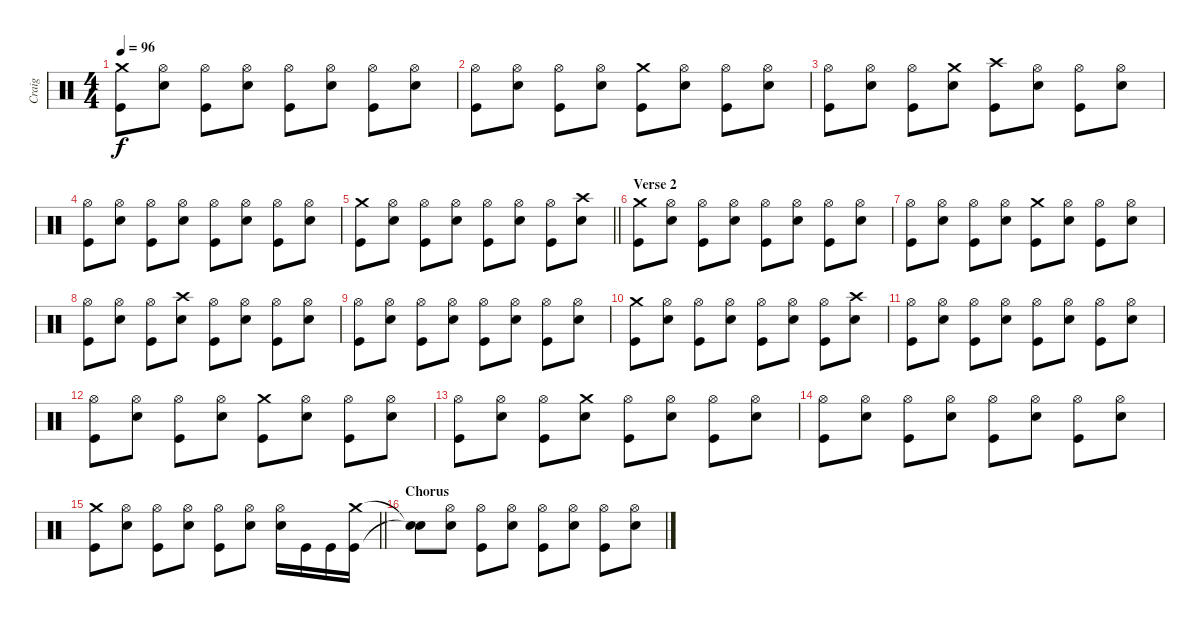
\track ("Craig" "Craig") {instrument percussion}
\staff {score}
\articulation defaults
\ts (4 4)
\tempo 96
\clef neutral
\ks c
("Crash medium (hit)" "Kick (hit)").8{dy f} ("Hi-Hat (open)" "Snare (hit) 2").8 ("Hi-Hat (open)" "Kick (hit)").8 ("Hi-Hat (open)" "Snare (hit) 2").8 ("Hi-Hat (open)" "Kick (hit)").8 ("Hi-Hat (open)" "Snare (hit) 2").8 ("Hi-Hat (open)" "Kick (hit)").8 ("Hi-Hat (open)" "Snare (hit) 2").8 |
("Hi-Hat (open)" "Kick (hit)").8 ("Hi-Hat (open)" "Snare (hit) 2").8 ("Hi-Hat (open)" "Kick (hit)").8 ("Hi-Hat (open)" "Snare (hit) 2").8 ("Crash medium (hit)" "Kick (hit)").8 ("Hi-Hat (open)" "Snare (hit) 2").8 ("Hi-Hat (open)" "Kick (hit)").8 ("Hi-Hat (open)" "Snare (hit) 2").8 |
("Hi-Hat (open)" "Kick (hit)").8 ("Hi-Hat (open)" "Snare (hit) 2").8 ("Hi-Hat (open)" "Kick (hit)").8 ("Crash medium (hit)" "Snare (hit) 2").8 ("Crash high (hit)" "Kick (hit)").8 ("Hi-Hat (open)" "Snare (hit) 2").8 ("Hi-Hat (open)" "Kick (hit)").8 ("Hi-Hat (open)" "Snare (hit) 2").8 |
("Hi-Hat (open)" "Kick (hit)").8 ("Hi-Hat (open)" "Snare (hit) 2").8 ("Hi-Hat (open)" "Kick (hit)").8 ("Hi-Hat (open)" "Snare (hit) 2").8 ("Hi-Hat (open)" "Kick (hit)").8 ("Hi-Hat (open)" "Snare (hit) 2").8 ("Hi-Hat (open)" "Kick (hit)").8 ("Hi-Hat (open)" "Snare (hit) 2").8 |
\barLineRight lightlight
("Crash medium (hit)" "Kick (hit)").8 ("Hi-Hat (open)" "Snare (hit) 2").8 ("Hi-Hat (open)" "Kick (hit)").8 ("Hi-Hat (open)" "Snare (hit) 2").8 ("Hi-Hat (open)" "Kick (hit)").8 ("Hi-Hat (open)" "Snare (hit) 2").8 ("Hi-Hat (open)" "Kick (hit)").8 ("Crash high (hit)" "Snare (hit) 2").8 |
\section ("" "Verse 2")
("Crash medium (hit)" "Kick (hit)").8 ("Hi-Hat (open)" "Snare (hit) 2").8 ("Hi-Hat (open)" "Kick (hit)").8 ("Hi-Hat (open)" "Snare (hit) 2").8 ("Hi-Hat (open)" "Kick (hit)").8 ("Hi-Hat (open)" "Snare (hit) 2").8 ("Hi-Hat (open)" "Kick (hit)").8 ("Hi-Hat (open)" "Snare (hit) 2").8 |
("Hi-Hat (open)" "Kick (hit)").8 ("Hi-Hat (open)" "Snare (hit) 2").8 ("Hi-Hat (open)" "Kick (hit)").8 ("Hi-Hat (open)" "Snare (hit) 2").8 ("Crash medium (hit)" "Kick (hit)").8 ("Hi-Hat (open)" "Snare (hit) 2").8 ("Hi-Hat (open)" "Kick (hit)").8 ("Hi-Hat (open)" "Snare (hit) 2").8 |
("Hi-Hat (open)" "Kick (hit)").8 ("Hi-Hat (open)" "Snare (hit) 2").8 ("Hi-Hat (open)" "Kick (hit)").8 ("Crash high (hit)" "Snare (hit) 2").8 ("Hi-Hat (open)" "Kick (hit)").8 ("Hi-Hat (open)" "Snare (hit) 2").8 ("Hi-Hat (open)" "Kick (hit)").8 ("Hi-Hat (open)" "Snare (hit) 2").8 |
("Hi-Hat (open)" "Kick (hit)").8 ("Hi-Hat (open)" "Snare (hit) 2").8 ("Hi-Hat (open)" "Kick (hit)").8 ("Hi-Hat (open)" "Snare (hit) 2").8 ("Hi-Hat (open)" "Kick (hit)").8 ("Hi-Hat (open)" "Snare (hit) 2").8 ("Hi-Hat (open)" "Kick (hit)").8 ("Hi-Hat (open)" "Snare (hit) 2").8 |
("Crash medium (hit)" "Kick (hit)").8 ("Hi-Hat (open)" "Snare (hit) 2").8 ("Hi-Hat (open)" "Kick (hit)").8 ("Hi-Hat (open)" "Snare (hit) 2").8 ("Hi-Hat (open)" "Kick (hit)").8 ("Hi-Hat (open)" "Snare (hit) 2").8 ("Hi-Hat (open)" "Kick (hit)").8 ("Crash high (hit)" "Snare (hit) 2").8 |
("Hi-Hat (open)" "Kick (hit)").8 ("Hi-Hat (open)" "Snare (hit) 2").8 ("Hi-Hat (open)" "Kick (hit)").8 ("Hi-Hat (open)" "Snare (hit) 2").8 ("Hi-Hat (open)" "Kick (hit)").8 ("Hi-Hat (open)" "Snare (hit) 2").8 ("Hi-Hat (open)" "Kick (hit)").8 ("Hi-Hat (open)" "Snare (hit) 2").8 |
("Hi-Hat (open)" "Kick (hit)").8 ("Hi-Hat (open)" "Snare (hit) 2").8 ("Hi-Hat (open)" "Kick (hit)").8 ("Hi-Hat (open)" "Snare (hit) 2").8 ("Crash medium (hit)" "Kick (hit)").8 ("Hi-Hat (open)" "Snare (hit) 2").8 ("Hi-Hat (open)" "Kick (hit)").8 ("Hi-Hat (open)" "Snare (hit) 2").8 |
("Hi-Hat (open)" "Kick (hit)").8 ("Hi-Hat (open)" "Snare (hit) 2").8 ("Hi-Hat (open)" "Kick (hit)").8 ("Crash medium (hit)" "Snare (hit) 2").8 ("Hi-Hat (open)" "Kick (hit)").8 ("Hi-Hat (open)" "Snare (hit) 2").8 ("Hi-Hat (open)" "Kick (hit)").8 ("Hi-Hat (open)" "Snare (hit) 2").8 |
("Hi-Hat (open)" "Kick (hit)").8 ("Hi-Hat (open)" "Snare (hit) 2").8 ("Hi-Hat (open)" "Kick (hit)").8 ("Hi-Hat (open)" "Snare (hit) 2").8 ("Hi-Hat (open)" "Kick (hit)").8 ("Hi-Hat (open)" "Snare (hit) 2").8 ("Hi-Hat (open)" "Kick (hit)").8 ("Hi-Hat (open)" "Snare (hit) 2").8 |
\barLineRight lightlight
("Crash medium (hit)" "Kick (hit)").8 ("Hi-Hat (open)" "Snare (hit) 2").8 ("Hi-Hat (open)" "Kick (hit)").8 ("Hi-Hat (open)" "Snare (hit) 2").8 ("Hi-Hat (open)" "Kick (hit)").8 ("Hi-Hat (open)" "Snare (hit) 2").8 ("Hi-Hat (open)" "Snare (hit) 2").16 "Kick (hit)".16 "Kick (hit)".16 ("Crash medium (hit)" "Kick (hit)").16 |
\section ("" "Chorus")
("Snare (hit)"{t} "Snare (hit)"{t}).8 ("Hi-Hat (open)" "Snare (hit) 2").8 ("Hi-Hat (open)" "Kick (hit)").8 ("Hi-Hat (open)" "Snare (hit) 2").8 ("Hi-Hat (open)" "Kick (hit)").8 ("Hi-Hat (open)" "Snare (hit) 2").8 ("Hi-Hat (open)" "Kick (hit)").8 ("Hi-Hat (open)" "Snare (hit) 2").8
